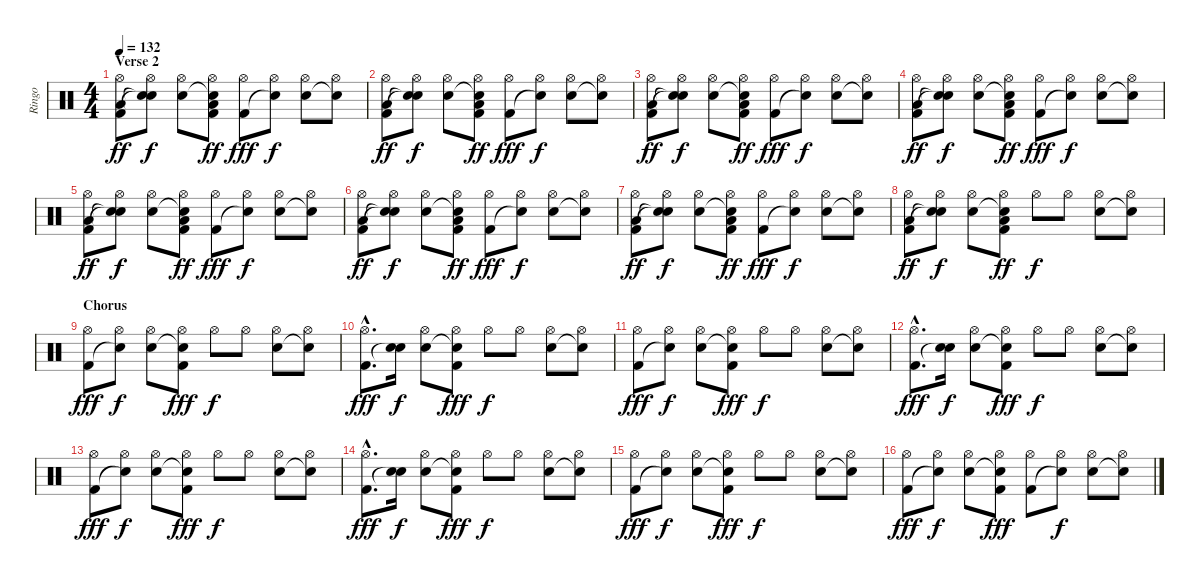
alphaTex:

\track ("Ringo" "Ringo") {instrument percussion}
\staff {score}
\articulation defaults
\ts (4 4)
\section ("" "Verse 2")
\tempo 132
\clef neutral
\ks c
("Hi-Hat (open)" "Kick (hit) 2" "Low Floor Tom (hit)").8{dy ff} ("Hi-Hat (open)" "Snare (hit)"{t} "Snare (hit)"{t}).8{dy f} ("Hi-Hat (open)" "Snare (hit) 2").8 ("Hi-Hat (open)" "Snare (hit)"{t} "Kick (hit) 2" "Low Floor Tom (hit)").8{dy ff} ("Hi-Hat (open)" "Kick (hit) 2").8{dy fff} ("Hi-Hat (open)" "Snare (hit)"{t}).8{dy f} ("Hi-Hat (open)" "Snare (hit) 2").8 ("Hi-Hat (open)" "Snare (hit)"{t}).8 |
("Hi-Hat (open)" "Kick (hit) 2" "Low Floor Tom (hit)").8{dy ff} ("Hi-Hat (open)" "Snare (hit)"{t} "Snare (hit)"{t}).8{dy f} ("Hi-Hat (open)" "Snare (hit) 2").8 ("Hi-Hat (open)" "Snare (hit)"{t} "Kick (hit) 2" "Low Floor Tom (hit)").8{dy ff} ("Hi-Hat (open)" "Kick (hit) 2").8{dy fff} ("Hi-Hat (open)" "Snare (hit)"{t}).8{dy f} ("Hi-Hat (open)" "Snare (hit) 2").8 ("Hi-Hat (open)" "Snare (hit)"{t}).8 |
("Hi-Hat (open)" "Kick (hit) 2" "Low Floor Tom (hit)").8{dy ff} ("Hi-Hat (open)" "Snare (hit)"{t} "Snare (hit)"{t}).8{dy f} ("Hi-Hat (open)" "Snare (hit) 2").8 ("Hi-Hat (open)" "Snare (hit)"{t} "Kick (hit) 2" "Low Floor Tom (hit)").8{dy ff} ("Hi-Hat (open)" "Kick (hit) 2").8{dy fff} ("Hi-Hat (open)" "Snare (hit)"{t}).8{dy f} ("Hi-Hat (open)" "Snare (hit) 2").8 ("Hi-Hat (open)" "Snare (hit)"{t}).8 |
("Hi-Hat (open)" "Kick (hit) 2" "Low Floor Tom (hit)").8{dy ff} ("Hi-Hat (open)" "Snare (hit)"{t} "Snare (hit)"{t}).8{dy f} ("Hi-Hat (open)" "Snare (hit) 2").8 ("Hi-Hat (open)" "Snare (hit)"{t} "Kick (hit) 2" "Low Floor Tom (hit)").8{dy ff} ("Hi-Hat (open)" "Kick (hit) 2").8{dy fff} ("Hi-Hat (open)" "Snare (hit)"{t}).8{dy f} ("Hi-Hat (open)" "Snare (hit) 2").8 ("Hi-Hat (open)" "Snare (hit)"{t}).8 |
("Hi-Hat (open)" "Kick (hit) 2" "Low Floor Tom (hit)").8{dy ff} ("Hi-Hat (open)" "Snare (hit)"{t} "Snare (hit)"{t}).8{dy f} ("Hi-Hat (open)" "Snare (hit) 2").8 ("Hi-Hat (open)" "Snare (hit)"{t} "Kick (hit) 2" "Low Floor Tom (hit)").8{dy ff} ("Hi-Hat (open)" "Kick (hit) 2").8{dy fff} ("Hi-Hat (open)" "Snare (hit)"{t}).8{dy f} ("Hi-Hat (open)" "Snare (hit) 2").8 ("Hi-Hat (open)" "Snare (hit)"{t}).8 |
("Hi-Hat (open)" "Kick (hit) 2" "Low Floor Tom (hit)").8{dy ff} ("Hi-Hat (open)" "Snare (hit)"{t} "Snare (hit)"{t}).8{dy f} ("Hi-Hat (open)" "Snare (hit) 2").8 ("Hi-Hat (open)" "Snare (hit)"{t} "Kick (hit) 2" "Low Floor Tom (hit)").8{dy ff} ("Hi-Hat (open)" "Kick (hit) 2").8{dy fff} ("Hi-Hat (open)" "Snare (hit)"{t}).8{dy f} ("Hi-Hat (open)" "Snare (hit) 2").8 ("Hi-Hat (open)" "Snare (hit)"{t}).8 |
("Hi-Hat (open)" "Kick (hit) 2" "Low Floor Tom (hit)").8{dy ff} ("Hi-Hat (open)" "Snare (hit)"{t} "Snare (hit)"{t}).8{dy f} ("Hi-Hat (open)" "Snare (hit) 2").8 ("Hi-Hat (open)" "Snare (hit)"{t} "Kick (hit) 2" "Low Floor Tom (hit)").8{dy ff} ("Hi-Hat (open)" "Kick (hit) 2").8{dy fff} ("Hi-Hat (open)" "Snare (hit)"{t}).8{dy f} ("Hi-Hat (open)" "Snare (hit) 2").8 ("Hi-Hat (open)" "Snare (hit)"{t}).8 |
("Hi-Hat (open)" "Kick (hit) 2" "Low Floor Tom (hit)").8{dy ff} ("Hi-Hat (open)" "Snare (hit)"{t} "Snare (hit)"{t}).8{dy f} ("Hi-Hat (open)" "Snare (hit) 2").8 ("Hi-Hat (open)" "Snare (hit)"{t} "Kick (hit) 2" "Low Floor Tom (hit)").8{dy ff} "Hi-Hat (open)".8{dy f} "Hi-Hat (open)".8 ("Hi-Hat (open)" "Snare (hit) 2").8 ("Hi-Hat (open)" "Snare (hit)"{t}).8 |
\section ("" "Chorus")
("Hi-Hat (open)" "Kick (hit) 2").8{dy fff} ("Hi-Hat (open)" "Snare (hit)"{t}).8{dy f} ("Hi-Hat (open)" "Snare (hit) 2").8 ("Hi-Hat (open)" "Snare (hit)"{t} "Kick (hit) 2").8{dy fff} "Hi-Hat (open)".8{dy f} "Hi-Hat (open)".8 ("Hi-Hat (open)" "Snare (hit) 2").8 ("Hi-Hat (open)" "Snare (hit)"{t}).8 |
("Hi-Hat (open)"{hac} "Kick (hit) 2"{hac}).8{d dy fff} ("Snare (hit) 2" "Snare (hit)"{t}).16{dy f} ("Hi-Hat (open)" "Snare (hit) 2").8 ("Hi-Hat (open)" "Snare (hit)"{t} "Kick (hit) 2").8{dy fff} "Hi-Hat (open)".8{dy f} "Hi-Hat (open)".8 ("Hi-Hat (open)" "Snare (hit) 2").8 ("Hi-Hat (open)" "Snare (hit)"{t}).8 |
("Hi-Hat (open)" "Kick (hit) 2").8{dy fff} ("Hi-Hat (open)" "Snare (hit)"{t}).8{dy f} ("Hi-Hat (open)" "Snare (hit) 2").8 ("Hi-Hat (open)" "Snare (hit)"{t} "Kick (hit) 2").8{dy fff} "Hi-Hat (open)".8{dy f} "Hi-Hat (open)".8 ("Hi-Hat (open)" "Snare (hit) 2").8 ("Hi-Hat (open)" "Snare (hit)"{t}).8 |
("Hi-Hat (open)"{hac} "Kick (hit) 2"{hac}).8{d dy fff} ("Snare (hit) 2" "Snare (hit)"{t}).16{dy f} ("Hi-Hat (open)" "Snare (hit) 2").8 ("Hi-Hat (open)" "Snare (hit)"{t} "Kick (hit) 2").8{dy fff} "Hi-Hat (open)".8{dy f} "Hi-Hat (open)".8 ("Hi-Hat (open)" "Snare (hit) 2").8 ("Hi-Hat (open)" "Snare (hit)"{t}).8 |
("Hi-Hat (open)" "Kick (hit) 2").8{dy fff} ("Hi-Hat (open)" "Snare (hit)"{t}).8{dy f} ("Hi-Hat (open)" "Snare (hit) 2").8 ("Hi-Hat (open)" "Snare (hit)"{t} "Kick (hit) 2").8{dy fff} "Hi-Hat (open)".8{dy f} "Hi-Hat (open)".8 ("Hi-Hat (open)" "Snare (hit) 2").8 ("Hi-Hat (open)" "Snare (hit)"{t}).8 |
("Hi-Hat (open)"{hac} "Kick (hit) 2"{hac}).8{d dy fff} ("Snare (hit) 2" "Snare (hit)"{t}).16{dy f} ("Hi-Hat (open)" "Snare (hit) 2").8 ("Hi-Hat (open)" "Snare (hit)"{t} "Kick (hit) 2").8{dy fff} "Hi-Hat (open)".8{dy f} "Hi-Hat (open)".8 ("Hi-Hat (open)" "Snare (hit) 2").8 ("Hi-Hat (open)" "Snare (hit)"{t}).8 |
("Hi-Hat (open)" "Kick (hit) 2").8{dy fff} ("Hi-Hat (open)" "Snare (hit)"{t}).8{dy f} ("Hi-Hat (open)" "Snare (hit) 2").8 ("Hi-Hat (open)" "Snare (hit)"{t} "Kick (hit) 2").8{dy fff} "Hi-Hat (open)".8{dy f} "Hi-Hat (open)".8 ("Hi-Hat (open)" "Snare (hit) 2").8 ("Hi-Hat (open)" "Snare (hit)"{t}).8 |
("Hi-Hat (open)" "Kick (hit) 2").8{dy fff} ("Hi-Hat (open)" "Snare (hit)"{t}).8{dy f} ("Hi-Hat (open)" "Snare (hit) 2").8 ("Hi-Hat (open)" "Snare (hit)"{t} "Kick (hit) 2").8{dy fff} ("Hi-Hat (open)" "Kick (hit) 2").8 ("Hi-Hat (open)" "Snare (hit)"{t}).8{dy f} ("Hi-Hat (open)" "Snare (hit) 2").8 ("Hi-Hat (open)" "Snare (hit)"{t}).8
